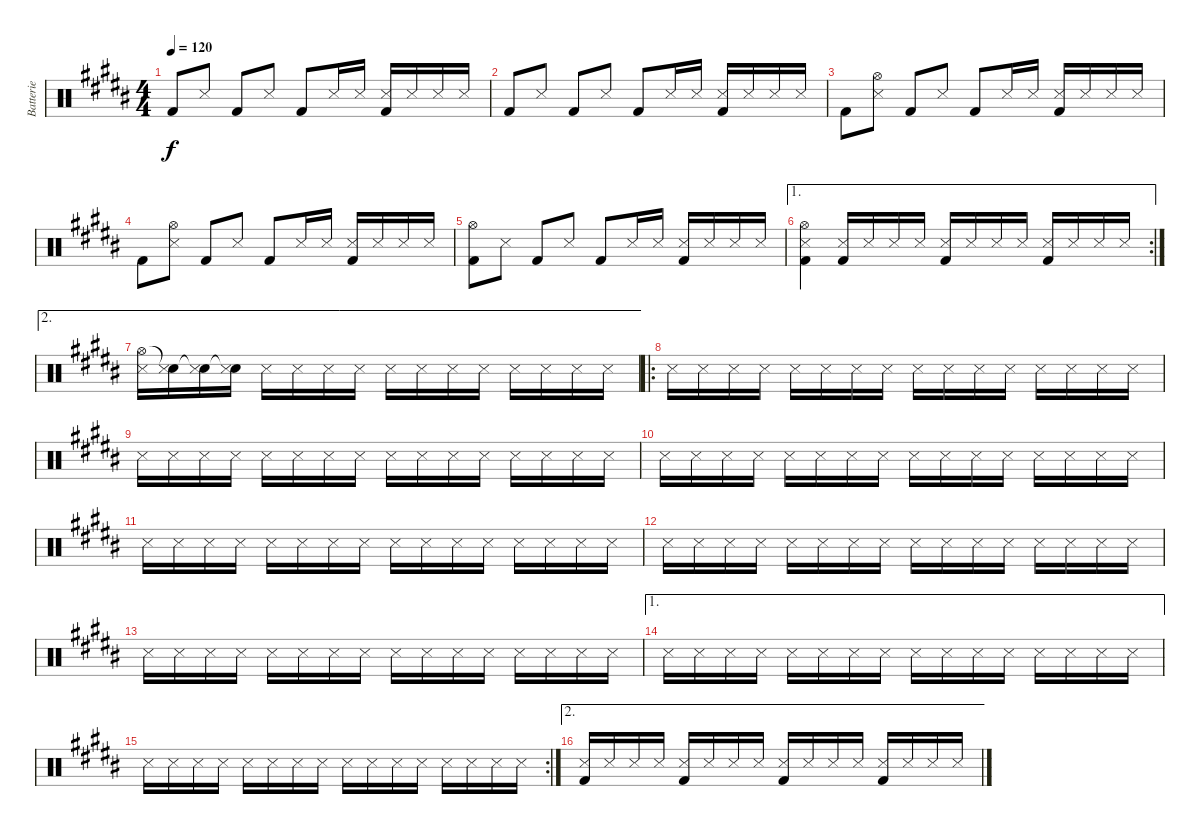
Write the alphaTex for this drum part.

\track ("Batterie" "Batterie") {instrument percussion}
\staff {score}
\articulation defaults
\ts (4 4)
\tempo 120
\clef neutral
\ks b "Kick (hit) 2".8{dy f} "Snare (side stick) 3".8 "Kick (hit) 2".8 "Snare (side stick) 3".8 "Kick (hit) 2".8 "Snare (side stick) 3".16 "Snare (side stick) 3".16
("Snare (side stick) 3" "Kick (hit) 2").16 "Snare (side stick) 3".16 "Snare (side stick) 3".16 "Snare (side stick) 3".16 |
"Kick (hit) 2".8 "Snare (side stick) 3".8 "Kick (hit) 2".8 "Snare (side stick) 3".8 "Kick (hit) 2".8 "Snare (side stick) 3".16 "Snare (side stick) 3".16 ("Snare (side stick) 3" "Kick (hit) 2").16 "Snare (side stick) 3".16 "Snare (side stick) 3".16 "Snare (side stick) 3".16 |
"Kick (hit) 2".8 ("Hi-Hat (open)" "Snare (side stick) 3").8 "Kick (hit) 2".8 "Snare (side stick) 3".8 "Kick (hit) 2".8 "Snare (side stick) 3".16 "Snare (side stick) 3".16 ("Snare (side stick) 3" "Kick (hit) 2").16 "Snare (side stick) 3".16 "Snare (side stick) 3".16 "Snare (side stick) 3".16 |
"Kick (hit) 2".8 ("Hi-Hat (open)" "Snare (side stick) 3").8 "Kick (hit) 2".8 "Snare (side stick) 3".8 "Kick (hit) 2".8 "Snare (side stick) 3".16 "Snare (side stick) 3".16 ("Snare (side stick) 3" "Kick (hit) 2").16 "Snare (side stick) 3".16 "Snare (side stick) 3".16 "Snare (side stick) 3".16 |
("Hi-Hat (open)" "Kick (hit) 2").8 "Snare (side stick) 3".8 "Kick (hit) 2".8 "Snare (side stick) 3".8 "Kick (hit) 2".8 "Snare (side stick) 3".16 "Snare (side stick) 3".16 ("Snare (side stick) 3" "Kick (hit) 2").16 "Snare (side stick) 3".16 "Snare (side stick) 3".16 "Snare (side stick) 3".16 |
\ae 1
\rc 2
("Hi-Hat (open)" "Snare (side stick) 3" "Kick (hit) 2").4 ("Snare (side stick) 3" "Kick (hit) 2").16 "Snare (side stick) 3".16 "Snare (side stick) 3".16 "Snare (side stick) 3".16 ("Snare (side stick) 3" "Kick (hit) 2").16 "Snare (side stick) 3".16 "Snare (side stick) 3".16 "Snare (side stick) 3".16 ("Snare (side stick) 3" "Kick (hit) 2").16 "Snare (side stick) 3".16 "Snare (side stick) 3".16 "Snare (side stick) 3".16 |
\ae 2
("Hi-Hat (open)" "Snare (side stick) 3").16 ("Snare (hit)"{t} "Snare (side stick) 3").16 ("Snare (hit)"{t} "Snare (side stick) 3").16 ("Snare (hit)"{t} "Snare (side stick) 3").16 "Snare (side stick) 3".16 "Snare (side stick) 3".16 "Snare (side stick) 3".16 "Snare (side stick) 3".16 "Snare (side stick) 3".16 "Snare (side stick) 3".16 "Snare (side stick) 3".16 "Snare (side stick) 3".16 "Snare (side stick) 3".16 "Snare (side stick) 3".16 "Snare (side stick) 3".16 "Snare (side stick) 3".16 |
\ro "Snare (side stick) 3".16 "Snare (side stick) 3".16 "Snare (side stick) 3".16 "Snare (side stick) 3".16 "Snare (side stick) 3".16 "Snare (side stick) 3".16 "Snare (side stick) 3".16 "Snare (side stick) 3".16 "Snare (side stick) 3".16 "Snare (side stick) 3".16 "Snare (side stick) 3".16 "Snare (side stick) 3".16 "Snare (side stick) 3".16 "Snare (side stick) 3".16 "Snare (side stick) 3".16 "Snare (side stick) 3".16
|
"Snare (side stick) 3".16 "Snare (side stick) 3".16 "Snare (side stick) 3".16 "Snare (side stick) 3".16 "Snare (side stick) 3".16 "Snare (side stick) 3".16 "Snare (side stick) 3".16 "Snare (side stick) 3".16 "Snare (side stick) 3".16 "Snare (side stick) 3".16 "Snare (side stick) 3".16 "Snare (side stick) 3".16 "Snare (side stick) 3".16 "Snare (side stick) 3".16 "Snare (side stick) 3".16 "Snare (side stick) 3".16 |
"Snare (side stick) 3".16 "Snare (side stick) 3".16 "Snare (side stick) 3".16 "Snare (side stick) 3".16 "Snare (side stick) 3".16 "Snare (side stick) 3".16 "Snare (side stick) 3".16 "Snare (side stick) 3".16 "Snare (side stick) 3".16 "Snare (side stick) 3".16 "Snare (side stick) 3".16 "Snare (side stick) 3".16 "Snare (side stick) 3".16 "Snare (side stick) 3".16 "Snare (side stick) 3".16 "Snare (side stick) 3".16 |
"Snare (side stick) 3".16 "Snare (side stick) 3".16 "Snare (side stick) 3".16 "Snare (side stick) 3".16 "Snare (side stick) 3".16 "Snare (side stick) 3".16 "Snare (side stick) 3".16 "Snare (side stick) 3".16 "Snare (side stick) 3".16 "Snare (side stick) 3".16 "Snare (side stick) 3".16 "Snare (side stick) 3".16 "Snare (side stick) 3".16 "Snare (side stick) 3".16 "Snare (side stick) 3".16 "Snare (side stick) 3".16 |
"Snare (side stick) 3".16 "Snare (side stick) 3".16 "Snare (side stick) 3".16 "Snare (side stick) 3".16 "Snare (side stick) 3".16 "Snare (side stick) 3".16 "Snare (side stick) 3".16 "Snare (side stick) 3".16 "Snare (side stick) 3".16 "Snare (side stick) 3".16 "Snare (side stick) 3".16 "Snare (side stick) 3".16 "Snare (side stick) 3".16 "Snare (side stick) 3".16 "Snare (side stick) 3".16 "Snare (side stick) 3".16 |
"Snare (side stick) 3".16 "Snare (side stick) 3".16 "Snare (side stick) 3".16 "Snare (side stick) 3".16 "Snare (side stick) 3".16 "Snare (side stick) 3".16 "Snare (side stick) 3".16 "Snare (side stick) 3".16 "Snare (side stick) 3".16 "Snare (side stick) 3".16 "Snare (side stick) 3".16 "Snare (side stick) 3".16 "Snare (side stick) 3".16 "Snare (side stick) 3".16 "Snare (side stick) 3".16 "Snare (side stick) 3".16 |
\ae 1 "Snare (side stick) 3".16 "Snare (side stick) 3".16 "Snare (side stick) 3".16 "Snare (side stick) 3".16 "Snare (side stick) 3".16 "Snare (side stick) 3".16 "Snare (side stick) 3".16 "Snare (side stick) 3".16 "Snare (side stick) 3".16 "Snare (side stick) 3".16 "Snare (side stick) 3".16 "Snare (side stick) 3".16 "Snare (side stick) 3".16 "Snare (side stick) 3".16 "Snare (side stick) 3".16 "Snare (side stick) 3".16
|
\rc 2 "Snare (side stick) 3".16 "Snare (side stick) 3".16 "Snare (side stick) 3".16 "Snare (side stick) 3".16 "Snare (side stick) 3".16 "Snare (side stick) 3".16 "Snare (side stick) 3".16 "Snare (side stick) 3".16 "Snare (side stick) 3".16 "Snare (side stick) 3".16 "Snare (side stick) 3".16 "Snare (side stick) 3".16 "Snare (side stick) 3".16 "Snare (side stick) 3".16 "Snare (side stick) 3".16 "Snare (side stick) 3".16
|
\ae 2
("Snare (side stick) 3" "Kick (hit) 2").16 "Snare (side stick) 3".16 "Snare (side stick) 3".16 "Snare (side stick) 3".16 ("Snare (side stick) 3" "Kick (hit) 2").16 "Snare (side stick) 3".16 "Snare (side stick) 3".16 "Snare (side stick) 3".16 ("Snare (side stick) 3" "Kick (hit) 2").16 "Snare (side stick) 3".16 "Snare (side stick) 3".16 "Snare (side stick) 3".16 ("Snare (side stick) 3" "Kick (hit) 2").16 "Snare (side stick) 3".16 "Snare (side stick) 3".16 "Snare (side stick) 3".16
